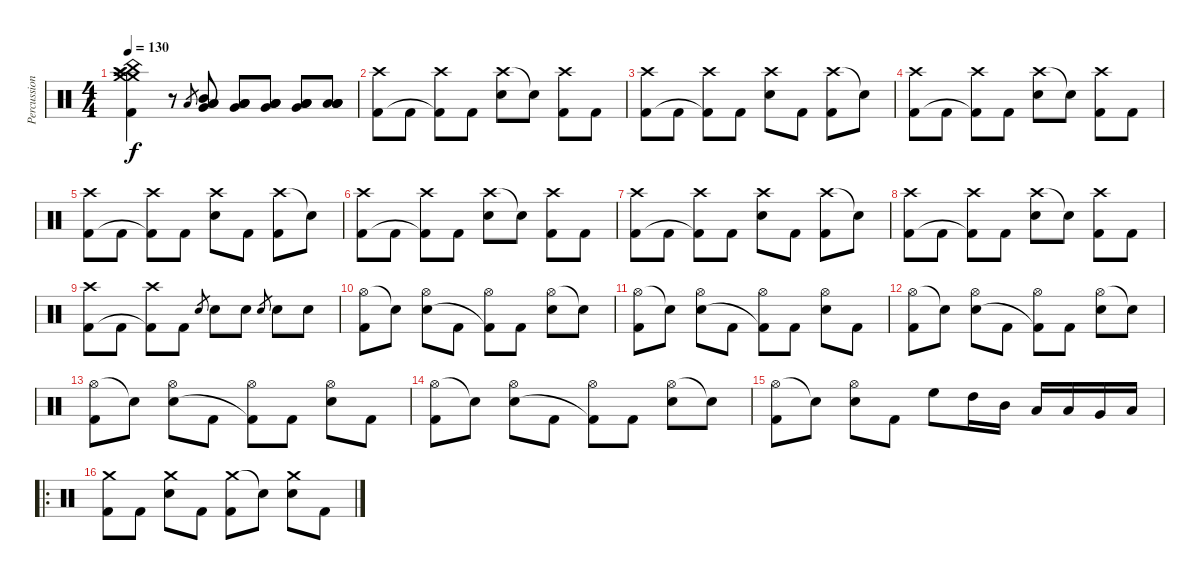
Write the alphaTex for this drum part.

\track ("Percussion" "Percussion") {instrument percussion}
\staff {score}
\articulation defaults
\ts (4 4)
\tempo 130
\clef neutral
\ks c
("Crash medium (hit)" "Splash (hit)" "China (hit)" "Crash high (hit)" "Crash medium (hit)" "Kick (hit) 2").4{dy f} r.8 "Low Tom (hit)".8{gr} ("Mid Tom (hit)" "Low Tom (hit)" "Very Low Tom (hit)" "Low Floor Tom (hit)").8 ("Low Tom (hit)" "Very Low Tom (hit)" "Low Floor Tom (hit)" "Low Floor Tom (hit)").8 ("Low Tom (hit)" "Very Low Tom (hit)" "Low Floor Tom (hit)" "Low Floor Tom (hit)").8 ("Very Low Tom (hit)" "Low Floor Tom (hit)" "Low Floor Tom (hit)" "Low Floor Tom (hit)").8 ("Low Floor Tom (hit)" "Low Floor Tom (hit)" "Low Floor Tom (hit)" "Low Floor Tom (hit)").8 |
("Crash high (hit)" "Kick (hit) 2").8 "Kick (hit) 2".8 ("Crash high (hit)" "Kick (hit) 2"{t}).8 "Kick (hit) 2".8 ("Crash high (hit)" "Electric Snare (hit)").8 "Snare (hit)"{t}.8 ("Crash high (hit)" "Kick (hit) 2").8 "Kick (hit) 2".8 |
("Crash high (hit)" "Kick (hit) 2").8 "Kick (hit) 2".8 ("Crash high (hit)" "Kick (hit) 2"{t}).8 "Kick (hit) 2".8 ("Crash high (hit)" "Electric Snare (hit)").8 "Kick (hit) 2".8 ("Crash high (hit)" "Kick (hit) 2").8 "Snare (hit)"{t}.8 |
("Crash high (hit)" "Kick (hit) 2").8 "Kick (hit) 2".8 ("Crash high (hit)" "Kick (hit) 2"{t}).8 "Kick (hit) 2".8 ("Crash high (hit)" "Electric Snare (hit)").8 "Snare (hit)"{t}.8 ("Crash high (hit)" "Kick (hit) 2").8 "Kick (hit) 2".8 |
("Crash high (hit)" "Kick (hit) 2").8 "Kick (hit) 2".8 ("Crash high (hit)" "Kick (hit) 2"{t}).8 "Kick (hit) 2".8 ("Crash high (hit)" "Electric Snare (hit)").8 "Kick (hit) 2".8 ("Crash high (hit)" "Kick (hit) 2").8 "Snare (hit)"{t}.8 |
("Crash high (hit)" "Kick (hit) 2").8 "Kick (hit) 2".8 ("Crash high (hit)" "Kick (hit) 2"{t}).8 "Kick (hit) 2".8 ("Crash high (hit)" "Electric Snare (hit)").8 "Snare (hit)"{t}.8 ("Crash high (hit)" "Kick (hit) 2").8 "Kick (hit) 2".8 |
("Crash high (hit)" "Kick (hit) 2").8 "Kick (hit) 2".8 ("Crash high (hit)" "Kick (hit) 2"{t}).8 "Kick (hit) 2".8 ("Crash high (hit)" "Electric Snare (hit)").8 "Kick (hit) 2".8 ("Crash high (hit)" "Kick (hit) 2").8 "Snare (hit)"{t}.8 |
("Crash high (hit)" "Kick (hit) 2").8 "Kick (hit) 2".8 ("Crash high (hit)" "Kick (hit) 2"{t}).8 "Kick (hit) 2".8 ("Crash high (hit)" "Electric Snare (hit)").8 "Snare (hit)"{t}.8 ("Crash high (hit)" "Kick (hit) 2").8 "Kick (hit) 2".8 |
("Crash high (hit)" "Kick (hit) 2").8 "Kick (hit) 2".8 ("Crash high (hit)" "Kick (hit) 2"{t}).8 "Kick (hit) 2".8 "Electric Snare (hit)".8{gr} "Electric Snare (hit)".8 "Electric Snare (hit)".8 "Electric Snare (hit)".8{gr} "Electric Snare (hit)".8 "Electric Snare (hit)".8 |
("Hi-Hat (open)" "Kick (hit) 2").8 "Snare (hit)"{t}.8 ("Hi-Hat (open)" "Electric Snare (hit)").8 "Kick (hit) 2".8 ("Hi-Hat (open)" "Kick (hit) 2"{t}).8 "Kick (hit) 2".8 ("Hi-Hat (open)" "Electric Snare (hit)").8 "Snare (hit)"{t}.8 |
("Hi-Hat (open)" "Kick (hit) 2").8 "Snare (hit)"{t}.8 ("Hi-Hat (open)" "Electric Snare (hit)").8 "Kick (hit) 2".8 ("Hi-Hat (open)" "Kick (hit) 2"{t}).8 "Kick (hit) 2".8 ("Hi-Hat (open)" "Electric Snare (hit)").8 "Kick (hit) 2".8 |
("Hi-Hat (open)" "Kick (hit) 2").8 "Snare (hit)"{t}.8 ("Hi-Hat (open)" "Electric Snare (hit)").8 "Kick (hit) 2".8 ("Hi-Hat (open)" "Kick (hit) 2"{t}).8 "Kick (hit) 2".8 ("Hi-Hat (open)" "Electric Snare (hit)").8 "Snare (hit)"{t}.8 |
("Hi-Hat (open)" "Kick (hit) 2").8 "Snare (hit)"{t}.8 ("Hi-Hat (open)" "Electric Snare (hit)").8 "Kick (hit) 2".8 ("Hi-Hat (open)" "Kick (hit) 2"{t}).8 "Kick (hit) 2".8 ("Hi-Hat (open)" "Electric Snare (hit)").8 "Kick (hit) 2".8 |
("Hi-Hat (open)" "Kick (hit) 2").8 "Snare (hit)"{t}.8 ("Hi-Hat (open)" "Electric Snare (hit)").8 "Kick (hit) 2".8 ("Hi-Hat (open)" "Kick (hit) 2"{t}).8 "Kick (hit) 2".8 ("Hi-Hat (open)" "Electric Snare (hit)").8 "Snare (hit)"{t}.8 |
("Hi-Hat (open)" "Kick (hit) 2").8 "Snare (hit)"{t}.8 ("Hi-Hat (open)" "Electric Snare (hit)").8 "Kick (hit) 2".8 "High Floor Tom (hit)".8 "High Tom (hit)".16 "Mid Tom (hit)".16 "Low Tom (hit)".16 "Low Tom (hit)".16 "Very Low Tom (hit)".16 "Low Floor Tom (hit)".16 |
\ro
("Crash medium (hit)" "Kick (hit) 2").8 "Kick (hit) 2".8 ("Crash medium (hit)" "Electric Snare (hit)").8 "Kick (hit) 2".8 ("Crash medium (hit)" "Kick (hit) 2").8 "Snare (hit)"{t}.8 ("Crash medium (hit)" "Electric Snare (hit)").8 "Kick (hit) 2".8
